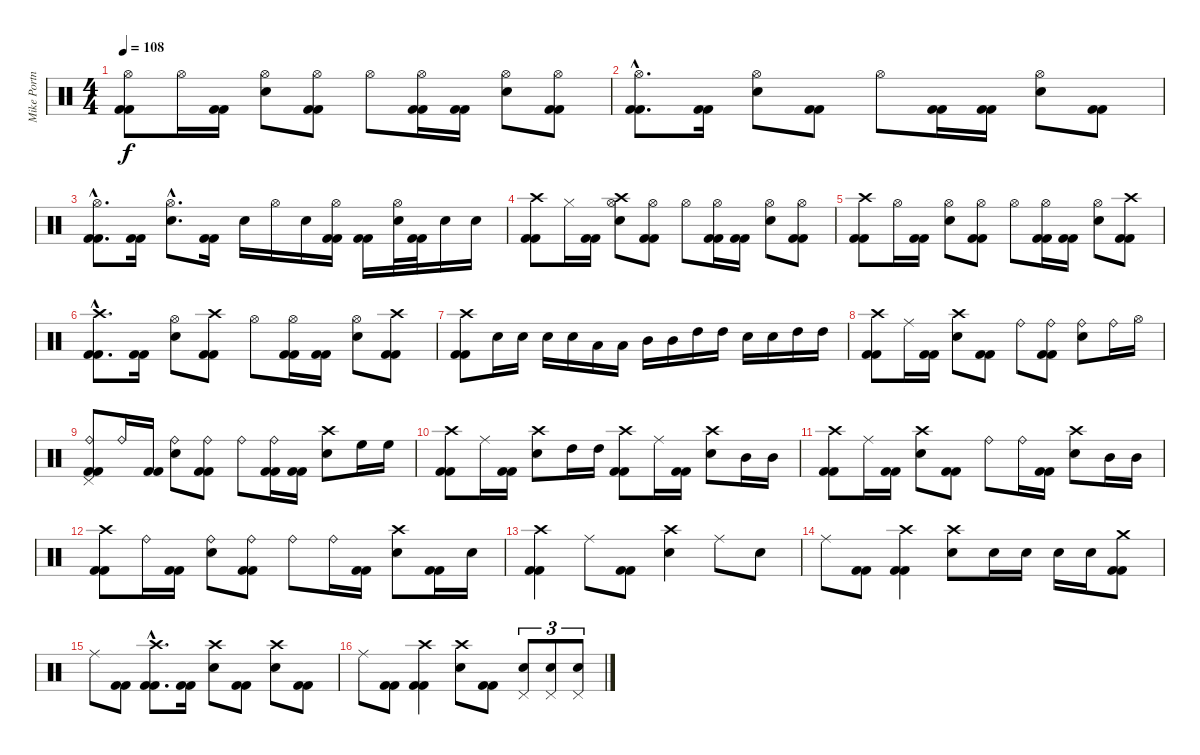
\track ("Mike Portnoy - Drum" "Mike Portn") {instrument percussion}
\staff {score}
\articulation defaults
\ts (4 4)
\tempo 108
\clef neutral
\ks c
("Hi-Hat (open)" "Kick (hit) 2" "Kick (hit) 2").8{dy f} "Hi-Hat (open)".16 ("Kick (hit) 2" "Kick (hit) 2").16 ("Hi-Hat (open)" "Snare (hit) 2").8 ("Hi-Hat (open)" "Kick (hit) 2" "Kick (hit) 2").8 "Hi-Hat (open)".8 ("Hi-Hat (open)" "Kick (hit) 2" "Kick (hit) 2").16 ("Kick (hit) 2" "Kick (hit) 2").16 ("Hi-Hat (open)" "Snare (hit) 2").8 ("Hi-Hat (open)" "Kick (hit) 2" "Kick (hit) 2").8 |
("Hi-Hat (open)"{hac} "Kick (hit) 2"{hac} "Kick (hit) 2"{hac}).8{d} ("Kick (hit) 2" "Kick (hit) 2").16 ("Hi-Hat (open)" "Snare (hit) 2").8 ("Kick (hit) 2" "Kick (hit) 2").8 "Hi-Hat (open)".8 ("Kick (hit) 2" "Kick (hit) 2").16 ("Kick (hit) 2" "Kick (hit) 2").16 ("Hi-Hat (open)" "Snare (hit) 2").8 ("Kick (hit) 2" "Kick (hit) 2").8 |
("Hi-Hat (open)"{hac} "Kick (hit) 2"{hac} "Kick (hit) 2"{hac}).8{d} ("Kick (hit) 2" "Kick (hit) 2").16 ("Hi-Hat (open)"{hac} "Snare (hit) 2"{hac}).8{d} ("Kick (hit) 2" "Kick (hit) 2").16 "Snare (hit) 2".16 "Hi-Hat (open)".16 "Snare (hit) 2".16 ("Hi-Hat (open)" "Kick (hit) 2" "Kick (hit) 2").16 ("Kick (hit) 2" "Kick (hit) 2").16 ("Hi-Hat (open)" "Snare (hit) 2").32 ("Kick (hit) 2" "Kick (hit) 2").32 "Snare (hit) 2".16 "Snare (hit) 2".16 |
("Crash high (hit)" "Kick (hit) 2" "Kick (hit) 2").8 "Hi-Hat (closed)".16 ("Kick (hit) 2" "Kick (hit) 2").16 ("Crash high (hit)" "Hi-Hat (open)" "Snare (hit) 2").8 ("Hi-Hat (open)" "Kick (hit) 2" "Kick (hit) 2").8 "Hi-Hat (open)".8 ("Hi-Hat (open)" "Kick (hit) 2" "Kick (hit) 2").16 ("Kick (hit) 2" "Kick (hit) 2").16 ("Hi-Hat (open)" "Snare (hit) 2").8 ("Hi-Hat (open)" "Kick (hit) 2" "Kick (hit) 2").8 |
("Crash high (hit)" "Kick (hit) 2" "Kick (hit) 2").8 "Hi-Hat (open)".16 ("Kick (hit) 2" "Kick (hit) 2").16 ("Hi-Hat (open)" "Snare (hit) 2").8 ("Hi-Hat (open)" "Kick (hit) 2" "Kick (hit) 2").8 "Hi-Hat (open)".8 ("Hi-Hat (open)" "Kick (hit) 2" "Kick (hit) 2").16 ("Kick (hit) 2" "Kick (hit) 2").16 ("Hi-Hat (open)" "Snare (hit) 2").8 ("Crash high (hit)" "Kick (hit) 2" "Kick (hit) 2").8 |
("Crash high (hit)"{hac} "Kick (hit) 2"{hac} "Kick (hit) 2"{hac}).8{d} ("Kick (hit) 2" "Kick (hit) 2").16 ("Hi-Hat (open)" "Snare (hit) 2").8 ("Crash high (hit)" "Kick (hit) 2" "Kick (hit) 2").8 "Hi-Hat (open)".8 ("Hi-Hat (open)" "Kick (hit) 2" "Kick (hit) 2").16 ("Kick (hit) 2" "Kick (hit) 2").16 ("Hi-Hat (open)" "Snare (hit) 2").8 ("Crash high (hit)" "Kick (hit) 2" "Kick (hit) 2").8 |
("Crash high (hit)" "Kick (hit) 2" "Kick (hit) 2").8 "Snare (hit) 2".16 "Snare (hit) 2".16 "Snare (hit) 2".16 "Snare (hit) 2".16 "Low Tom (hit)".16 "Low Tom (hit)".16 "Mid Tom (hit)".16 "Mid Tom (hit)".16 "High Tom (hit)".16 "High Tom (hit)".16 "Snare (hit) 2".16 "Snare (hit) 2".16 "High Tom (hit)".16 "High Tom (hit)".16 |
("Crash high (hit)" "Kick (hit) 2" "Kick (hit) 2").8 "Ride (middle)".16 ("Kick (hit) 2" "Kick (hit) 2").16 ("Crash high (hit)" "Snare (hit) 2").8 ("Kick (hit) 2" "Kick (hit) 2").8 "Ride (bell)".8 ("Ride (bell)" "Kick (hit) 2" "Kick (hit) 2").8 ("Ride (bell)" "Snare (hit) 2").8 "Ride (bell)".16 "Hi-Hat (open)".16 |
("Ride (bell)" "Pedal Hi-Hat (hit)" "Kick (hit) 2" "Kick (hit) 2").8 "Ride (bell)".16 ("Kick (hit) 2" "Kick (hit) 2").16 ("Ride (bell)" "Snare (hit) 2").8 ("Ride (bell)" "Kick (hit) 2" "Kick (hit) 2").8 "Ride (bell)".8 ("Ride (bell)" "Kick (hit) 2" "Kick (hit) 2").16 ("Kick (hit) 2" "Kick (hit) 2").16 ("Crash high (hit)" "Snare (hit) 2").8 "High Floor Tom (hit)".16 "High Floor Tom (hit)".16 |
("Crash high (hit)" "Kick (hit) 2" "Kick (hit) 2").8 "Ride (middle)".16 ("Kick (hit) 2" "Kick (hit) 2").16 ("Crash high (hit)" "Snare (hit) 2").8 "High Tom (hit)".16 "High Tom (hit)".16 ("Crash high (hit)" "Kick (hit) 2" "Kick (hit) 2").8 "Ride (middle)".16 ("Kick (hit) 2" "Kick (hit) 2").16 ("Crash high (hit)" "Snare (hit) 2").8 "Mid Tom (hit)".16 "Mid Tom (hit)".16 |
("Crash high (hit)" "Kick (hit) 2" "Kick (hit) 2").8 "Ride (middle)".16 ("Kick (hit) 2" "Kick (hit) 2").16 ("Crash high (hit)" "Snare (hit) 2").8 ("Kick (hit) 2" "Kick (hit) 2").8 "Ride (bell)".8 "Ride (bell)".16 ("Kick (hit) 2" "Kick (hit) 2").16 ("Crash high (hit)" "Snare (hit) 2").8 "Mid Tom (hit)".16 "Mid Tom (hit)".16 |
("Crash high (hit)" "Kick (hit) 2" "Kick (hit) 2").8 "Ride (bell)".16 ("Kick (hit) 2" "Kick (hit) 2").16 ("Ride (bell)" "Snare (hit) 2").8 ("Ride (bell)" "Kick (hit) 2" "Kick (hit) 2").8 "Ride (bell)".8 "Ride (bell)".16 ("Kick (hit) 2" "Kick (hit) 2").16 ("Crash high (hit)" "Snare (hit) 2").8 ("Kick (hit) 2" "Kick (hit) 2").16 "Snare (hit) 2".16 |
("Crash high (hit)" "Kick (hit) 2" "Kick (hit) 2").4 "Ride (middle)".8 ("Kick (hit) 2" "Kick (hit) 2").8 ("Crash high (hit)" "Snare (hit) 2").4 "Ride (middle)".8 "Snare (hit) 2".8 |
"Ride (middle)".8 ("Kick (hit) 2" "Kick (hit) 2").8 ("Crash high (hit)" "Kick (hit) 2" "Kick (hit) 2").4 ("Crash high (hit)" "Snare (hit) 2").8 "Snare (hit) 2".16 "Snare (hit) 2".16 "Snare (hit) 2".16 "Snare (hit) 2".16 ("Crash medium (hit)" "Kick (hit) 2" "Kick (hit) 2").8 |
"Ride (middle)".8 ("Kick (hit) 2" "Kick (hit) 2").8 ("Crash high (hit)"{hac} "Kick (hit) 2"{hac} "Kick (hit) 2"{hac}).8{d} ("Kick (hit) 2" "Kick (hit) 2").16 ("Crash high (hit)" "Snare (hit) 2").8 ("Kick (hit) 2" "Kick (hit) 2").8 ("Crash high (hit)" "Snare (hit) 2").8 ("Kick (hit) 2" "Kick (hit) 2").8 |
"Ride (middle)".8 ("Kick (hit) 2" "Kick (hit) 2").8 ("Crash high (hit)" "Kick (hit) 2" "Kick (hit) 2").4 ("Crash high (hit)" "Snare (hit) 2").8 ("Kick (hit) 2" "Kick (hit) 2").8 ("Pedal Hi-Hat (hit)" "Snare (hit) 2").8{tu (3 2)} ("Pedal Hi-Hat (hit)" "Snare (hit) 2").8{tu (3 2)} ("Pedal Hi-Hat (hit)" "Snare (hit) 2").8{tu (3 2)}
